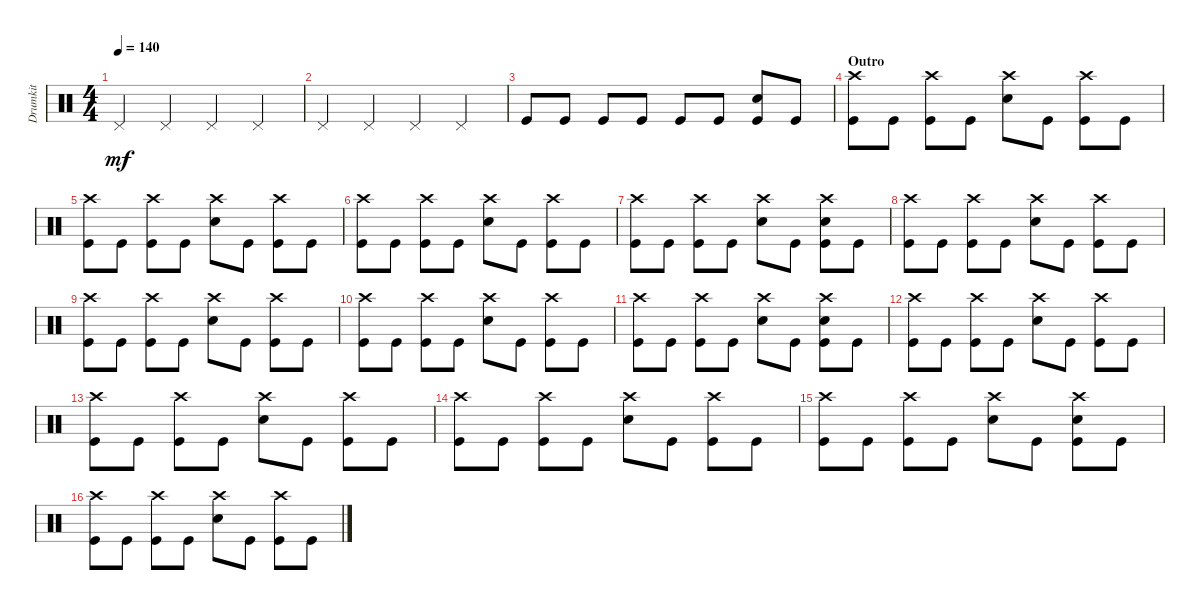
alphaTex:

\track ("Drumkit" "Drumkit") {instrument percussion}
\staff {score}
\articulation defaults
\ts (4 4)
\tempo 140
\clef neutral
\ks c "Pedal Hi-Hat (hit)".4{dy mf} "Pedal Hi-Hat (hit)".4 "Pedal Hi-Hat (hit)".4 "Pedal Hi-Hat (hit)".4
|
"Pedal Hi-Hat (hit)".4 "Pedal Hi-Hat (hit)".4 "Pedal Hi-Hat (hit)".4 "Pedal Hi-Hat (hit)".4 |
"Kick (hit)".8 "Kick (hit)".8 "Kick (hit)".8 "Kick (hit)".8 "Kick (hit)".8 "Kick (hit)".8 ("Kick (hit)" "Snare (hit) 2").8 "Kick (hit)".8 |
\section ("" "Outro")
("Kick (hit)" "Crash high (hit)").8 "Kick (hit)".8 ("Kick (hit)" "Crash high (hit)").8 "Kick (hit)".8 ("Snare (hit) 2" "Crash high (hit)").8 "Kick (hit)".8 ("Kick (hit)" "Crash high (hit)").8 "Kick (hit)".8 |
("Kick (hit)" "Crash high (hit)").8 "Kick (hit)".8 ("Kick (hit)" "Crash high (hit)").8 "Kick (hit)".8 ("Snare (hit) 2" "Crash high (hit)").8 "Kick (hit)".8 ("Kick (hit)" "Crash high (hit)").8 "Kick (hit)".8 |
("Kick (hit)" "Crash high (hit)").8 "Kick (hit)".8 ("Kick (hit)" "Crash high (hit)").8 "Kick (hit)".8 ("Snare (hit) 2" "Crash high (hit)").8 "Kick (hit)".8 ("Kick (hit)" "Crash high (hit)").8 "Kick (hit)".8 |
("Kick (hit)" "Crash high (hit)").8 "Kick (hit)".8 ("Kick (hit)" "Crash high (hit)").8 "Kick (hit)".8 ("Snare (hit) 2" "Crash high (hit)").8 "Kick (hit)".8 ("Kick (hit)" "Crash high (hit)" "Snare (hit) 2").8 "Kick (hit)".8 |
("Kick (hit)" "Crash high (hit)").8 "Kick (hit)".8 ("Kick (hit)" "Crash high (hit)").8 "Kick (hit)".8 ("Snare (hit) 2" "Crash high (hit)").8 "Kick (hit)".8 ("Kick (hit)" "Crash high (hit)").8 "Kick (hit)".8 |
("Kick (hit)" "Crash high (hit)").8 "Kick (hit)".8 ("Kick (hit)" "Crash high (hit)").8 "Kick (hit)".8 ("Snare (hit) 2" "Crash high (hit)").8 "Kick (hit)".8 ("Kick (hit)" "Crash high (hit)").8 "Kick (hit)".8 |
("Kick (hit)" "Crash high (hit)").8 "Kick (hit)".8 ("Kick (hit)" "Crash high (hit)").8 "Kick (hit)".8 ("Snare (hit) 2" "Crash high (hit)").8 "Kick (hit)".8 ("Kick (hit)" "Crash high (hit)").8 "Kick (hit)".8 |
("Kick (hit)" "Crash high (hit)").8 "Kick (hit)".8 ("Kick (hit)" "Crash high (hit)").8 "Kick (hit)".8 ("Snare (hit) 2" "Crash high (hit)").8 "Kick (hit)".8 ("Kick (hit)" "Crash high (hit)" "Snare (hit) 2").8 "Kick (hit)".8 |
("Kick (hit)" "Crash high (hit)").8 "Kick (hit)".8 ("Kick (hit)" "Crash high (hit)").8 "Kick (hit)".8 ("Snare (hit) 2" "Crash high (hit)").8 "Kick (hit)".8 ("Kick (hit)" "Crash high (hit)").8 "Kick (hit)".8 |
("Kick (hit)" "Crash high (hit)").8 "Kick (hit)".8 ("Kick (hit)" "Crash high (hit)").8 "Kick (hit)".8 ("Snare (hit) 2" "Crash high (hit)").8 "Kick (hit)".8 ("Kick (hit)" "Crash high (hit)").8 "Kick (hit)".8 |
("Kick (hit)" "Crash high (hit)").8 "Kick (hit)".8 ("Kick (hit)" "Crash high (hit)").8 "Kick (hit)".8 ("Snare (hit) 2" "Crash high (hit)").8 "Kick (hit)".8 ("Kick (hit)" "Crash high (hit)").8 "Kick (hit)".8 |
("Kick (hit)" "Crash high (hit)").8 "Kick (hit)".8 ("Kick (hit)" "Crash high (hit)").8 "Kick (hit)".8 ("Snare (hit) 2" "Crash high (hit)").8 "Kick (hit)".8 ("Kick (hit)" "Crash high (hit)" "Snare (hit) 2").8 "Kick (hit)".8 |
("Kick (hit)" "Crash high (hit)").8 "Kick (hit)".8 ("Kick (hit)" "Crash high (hit)").8 "Kick (hit)".8 ("Snare (hit) 2" "Crash high (hit)").8 "Kick (hit)".8 ("Kick (hit)" "Crash high (hit)").8 "Kick (hit)".8
